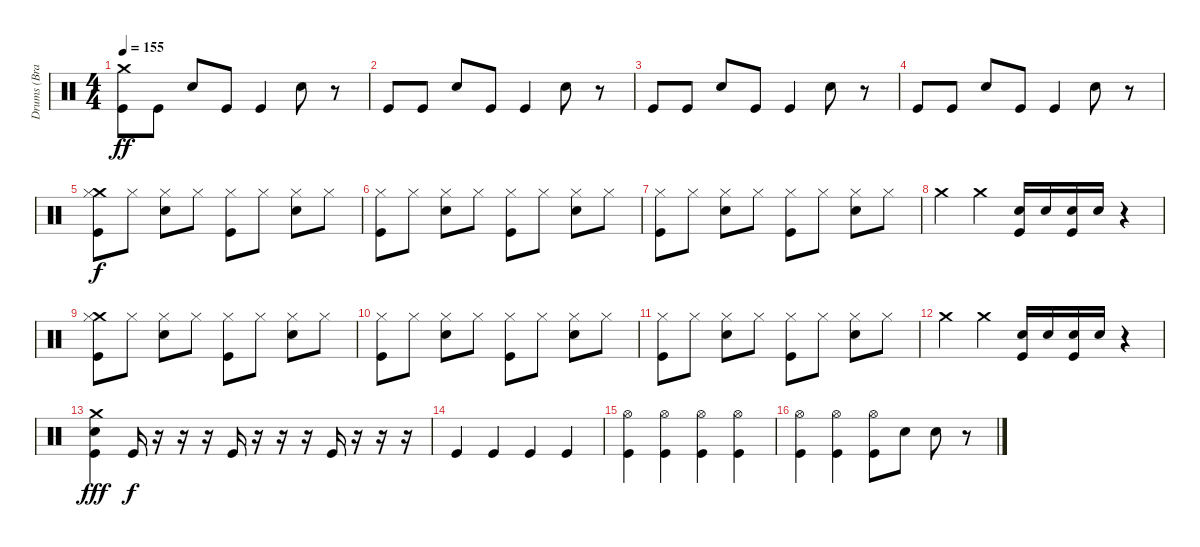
\track ("Drums (Bradie Webb)" "Drums (Bra") {instrument percussion}
\staff {score}
\articulation defaults
\ts (4 4)
\tempo 155
\clef neutral
\ks c
("Crash medium (hit)" "Kick (hit)").8{dy ff} "Kick (hit)".8 "Snare (hit) 2".8 "Kick (hit)".8 "Kick (hit)".4 "Snare (hit) 2".8 r.8 |
"Kick (hit)".8 "Kick (hit)".8 "Snare (hit) 2".8 "Kick (hit)".8 "Kick (hit)".4 "Snare (hit) 2".8 r.8 |
"Kick (hit)".8 "Kick (hit)".8 "Snare (hit) 2".8 "Kick (hit)".8 "Kick (hit)".4 "Snare (hit) 2".8 r.8 |
"Kick (hit)".8 "Kick (hit)".8 "Snare (hit) 2".8 "Kick (hit)".8 "Kick (hit)".4 "Snare (hit) 2".8 r.8 |
("Crash medium (hit)" "Hi-Hat (closed)" "Kick (hit)").8{dy f} "Hi-Hat (closed)".8 ("Hi-Hat (closed)" "Snare (hit) 2").8 "Hi-Hat (closed)".8 ("Hi-Hat (closed)" "Kick (hit)").8 "Hi-Hat (closed)".8 ("Hi-Hat (closed)" "Snare (hit) 2").8 "Hi-Hat (closed)".8 |
("Hi-Hat (closed)" "Kick (hit)").8 "Hi-Hat (closed)".8 ("Hi-Hat (closed)" "Snare (hit) 2").8 "Hi-Hat (closed)".8 ("Hi-Hat (closed)" "Kick (hit)").8 "Hi-Hat (closed)".8 ("Hi-Hat (closed)" "Snare (hit) 2").8 "Hi-Hat (closed)".8 |
("Hi-Hat (closed)" "Kick (hit)").8 "Hi-Hat (closed)".8 ("Hi-Hat (closed)" "Snare (hit) 2").8 "Hi-Hat (closed)".8 ("Hi-Hat (closed)" "Kick (hit)").8 "Hi-Hat (closed)".8 ("Hi-Hat (closed)" "Snare (hit) 2").8 "Hi-Hat (closed)".8 |
"Crash medium (hit)".4 "Crash medium (hit)".4 ("Snare (hit) 2" "Kick (hit)").16 "Snare (hit) 2".16 ("Snare (hit) 2" "Kick (hit)").16 "Snare (hit) 2".16 r.4 |
("Crash medium (hit)" "Hi-Hat (closed)" "Kick (hit)").8 "Hi-Hat (closed)".8 ("Hi-Hat (closed)" "Snare (hit) 2").8 "Hi-Hat (closed)".8 ("Hi-Hat (closed)" "Kick (hit)").8 "Hi-Hat (closed)".8 ("Hi-Hat (closed)" "Snare (hit) 2").8 "Hi-Hat (closed)".8 |
("Hi-Hat (closed)" "Kick (hit)").8 "Hi-Hat (closed)".8 ("Hi-Hat (closed)" "Snare (hit) 2").8 "Hi-Hat (closed)".8 ("Hi-Hat (closed)" "Kick (hit)").8 "Hi-Hat (closed)".8 ("Hi-Hat (closed)" "Snare (hit) 2").8 "Hi-Hat (closed)".8 |
("Hi-Hat (closed)" "Kick (hit)").8 "Hi-Hat (closed)".8 ("Hi-Hat (closed)" "Snare (hit) 2").8 "Hi-Hat (closed)".8 ("Hi-Hat (closed)" "Kick (hit)").8 "Hi-Hat (closed)".8 ("Hi-Hat (closed)" "Snare (hit) 2").8 "Hi-Hat (closed)".8 |
"Crash medium (hit)".4 "Crash medium (hit)".4 ("Snare (hit) 2" "Kick (hit)").16 "Snare (hit) 2".16 ("Snare (hit) 2" "Kick (hit)").16 "Snare (hit) 2".16 r.4 |
("Crash medium (hit)" "Kick (hit)" "Snare (hit) 2").4{dy fff} "Kick (hit)".16{dy f} r.16 r.16 r.16 "Kick (hit)".16 r.16 r.16 r.16 "Kick (hit)".16 r.16 r.16 r.16 |
"Kick (hit)".4 "Kick (hit)".4 "Kick (hit)".4 "Kick (hit)".4 |
("Kick (hit)" "Hi-Hat (open)").4 ("Kick (hit)" "Hi-Hat (open)").4 ("Kick (hit)" "Hi-Hat (open)").4 ("Kick (hit)" "Hi-Hat (open)").4 |
("Kick (hit)" "Hi-Hat (open)").4 ("Kick (hit)" "Hi-Hat (open)").4 ("Kick (hit)" "Hi-Hat (open)").8 "Snare (hit) 2".8 "Snare (hit) 2".8 r.8
